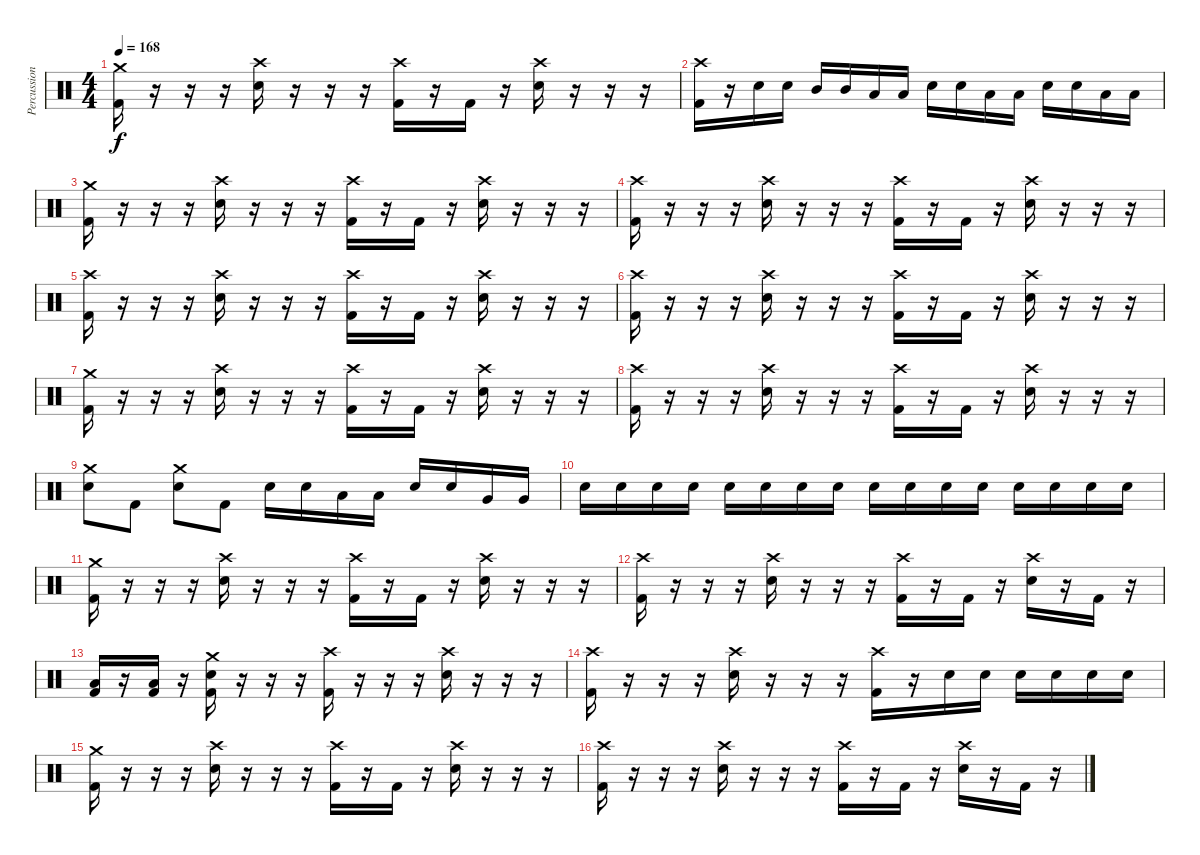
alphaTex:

\track ("Percussion" "Percussion") {instrument percussion}
\staff {score}
\articulation defaults
\ts (4 4)
\tempo 168
\clef neutral
\ks c
("Crash medium (hit)" "Kick (hit) 2").16{dy f} r.16 r.16 r.16 ("Crash high (hit)" "Snare (hit) 2").16 r.16 r.16 r.16 ("Crash high (hit)" "Kick (hit) 2").16 r.16 "Kick (hit) 2".16 r.16 ("Crash high (hit)" "Snare (hit) 2").16 r.16 r.16 r.16 |
("Crash high (hit)" "Kick (hit) 2").16 r.16 "Snare (hit) 2".16 "Snare (hit) 2".16 "Mid Tom (hit)".16 "Mid Tom (hit)".16 "Low Tom (hit)".16 "Low Tom (hit)".16 "Snare (hit) 2".16 "Snare (hit) 2".16 "Low Tom (hit)".16 "Low Tom (hit)".16 "Snare (hit) 2".16 "Snare (hit) 2".16 "Low Tom (hit)".16 "Low Tom (hit)".16 |
("Crash medium (hit)" "Kick (hit) 2").16 r.16 r.16 r.16 ("Crash high (hit)" "Snare (hit) 2").16 r.16 r.16 r.16 ("Crash high (hit)" "Kick (hit) 2").16 r.16 "Kick (hit) 2".16 r.16 ("Crash high (hit)" "Snare (hit) 2").16 r.16 r.16 r.16 |
("Crash high (hit)" "Kick (hit) 2").16 r.16 r.16 r.16 ("Crash high (hit)" "Snare (hit) 2").16 r.16 r.16 r.16 ("Crash high (hit)" "Kick (hit) 2").16 r.16 "Kick (hit) 2".16 r.16 ("Crash high (hit)" "Snare (hit) 2").16 r.16 r.16 r.16 |
("Crash high (hit)" "Kick (hit) 2").16 r.16 r.16 r.16 ("Crash high (hit)" "Snare (hit) 2").16 r.16 r.16 r.16 ("Crash high (hit)" "Kick (hit) 2").16 r.16 "Kick (hit) 2".16 r.16 ("Crash high (hit)" "Snare (hit) 2").16 r.16 r.16 r.16 |
("Crash high (hit)" "Kick (hit) 2").16 r.16 r.16 r.16 ("Crash high (hit)" "Snare (hit) 2").16 r.16 r.16 r.16 ("Crash high (hit)" "Kick (hit) 2").16 r.16 "Kick (hit) 2".16 r.16 ("Crash high (hit)" "Snare (hit) 2").16 r.16 r.16 r.16 |
("Crash medium (hit)" "Kick (hit) 2").16 r.16 r.16 r.16 ("Crash high (hit)" "Snare (hit) 2").16 r.16 r.16 r.16 ("Crash high (hit)" "Kick (hit) 2").16 r.16 "Kick (hit) 2".16 r.16 ("Crash high (hit)" "Snare (hit) 2").16 r.16 r.16 r.16 |
("Crash high (hit)" "Kick (hit) 2").16 r.16 r.16 r.16 ("Crash high (hit)" "Snare (hit) 2").16 r.16 r.16 r.16 ("Crash high (hit)" "Kick (hit) 2").16 r.16 "Kick (hit) 2".16 r.16 ("Crash high (hit)" "Snare (hit) 2").16 r.16 r.16 r.16 |
("Crash medium (hit)" "Snare (hit) 2").8 "Kick (hit) 2".8 ("Crash medium (hit)" "Snare (hit) 2").8 "Kick (hit) 2".8 "Snare (hit) 2".16 "Snare (hit) 2".16 "Low Tom (hit)".16 "Low Tom (hit)".16 "Snare (hit) 2".16 "Snare (hit) 2".16 "Very Low Tom (hit)".16 "Very Low Tom (hit)".16 |
"Snare (hit) 2".16 "Snare (hit) 2".16 "Snare (hit) 2".16 "Snare (hit) 2".16 "Snare (hit) 2".16 "Snare (hit) 2".16 "Snare (hit) 2".16 "Snare (hit) 2".16 "Snare (hit) 2".16 "Snare (hit) 2".16 "Snare (hit) 2".16 "Snare (hit) 2".16 "Snare (hit) 2".16 "Snare (hit) 2".16 "Snare (hit) 2".16 "Snare (hit) 2".16 |
("Crash medium (hit)" "Kick (hit) 2").16 r.16 r.16 r.16 ("Crash high (hit)" "Snare (hit) 2").16 r.16 r.16 r.16 ("Crash high (hit)" "Kick (hit) 2").16 r.16 "Kick (hit) 2".16 r.16 ("Crash high (hit)" "Snare (hit) 2").16 r.16 r.16 r.16 |
("Crash high (hit)" "Kick (hit) 2").16 r.16 r.16 r.16 ("Crash high (hit)" "Snare (hit) 2").16 r.16 r.16 r.16 ("Crash high (hit)" "Kick (hit) 2").16 r.16 "Kick (hit) 2".16 r.16 ("Crash high (hit)" "Snare (hit) 2").16 r.16 "Kick (hit) 2".16 r.16 |
("Low Floor Tom (hit)" "Kick (hit) 2").16 r.16 ("Low Floor Tom (hit)" "Kick (hit) 2").16 r.16 ("Crash medium (hit)" "Snare (hit) 2" "Kick (hit) 2").16 r.16 r.16 r.16 ("Crash high (hit)" "Kick (hit) 2").16 r.16 r.16 r.16 ("Crash high (hit)" "Snare (hit) 2").16 r.16 r.16 r.16 |
("Crash high (hit)" "Kick (hit) 2").16 r.16 r.16 r.16 ("Crash high (hit)" "Snare (hit) 2").16 r.16 r.16 r.16 ("Crash high (hit)" "Kick (hit) 2").16 r.16 "Snare (hit) 2".16 "Snare (hit) 2".16 "Snare (hit) 2".16 "Snare (hit) 2".16 "Snare (hit) 2".16 "Snare (hit) 2".16 |
("Crash medium (hit)" "Kick (hit) 2").16 r.16 r.16 r.16 ("Crash high (hit)" "Snare (hit) 2").16 r.16 r.16 r.16 ("Crash high (hit)" "Kick (hit) 2").16 r.16 "Kick (hit) 2".16 r.16 ("Crash high (hit)" "Snare (hit) 2").16 r.16 r.16 r.16 |
("Crash high (hit)" "Kick (hit) 2").16 r.16 r.16 r.16 ("Crash high (hit)" "Snare (hit) 2").16 r.16 r.16 r.16 ("Crash high (hit)" "Kick (hit) 2").16 r.16 "Kick (hit) 2".16 r.16 ("Crash high (hit)" "Snare (hit) 2").16 r.16 "Kick (hit) 2".16 r.16
